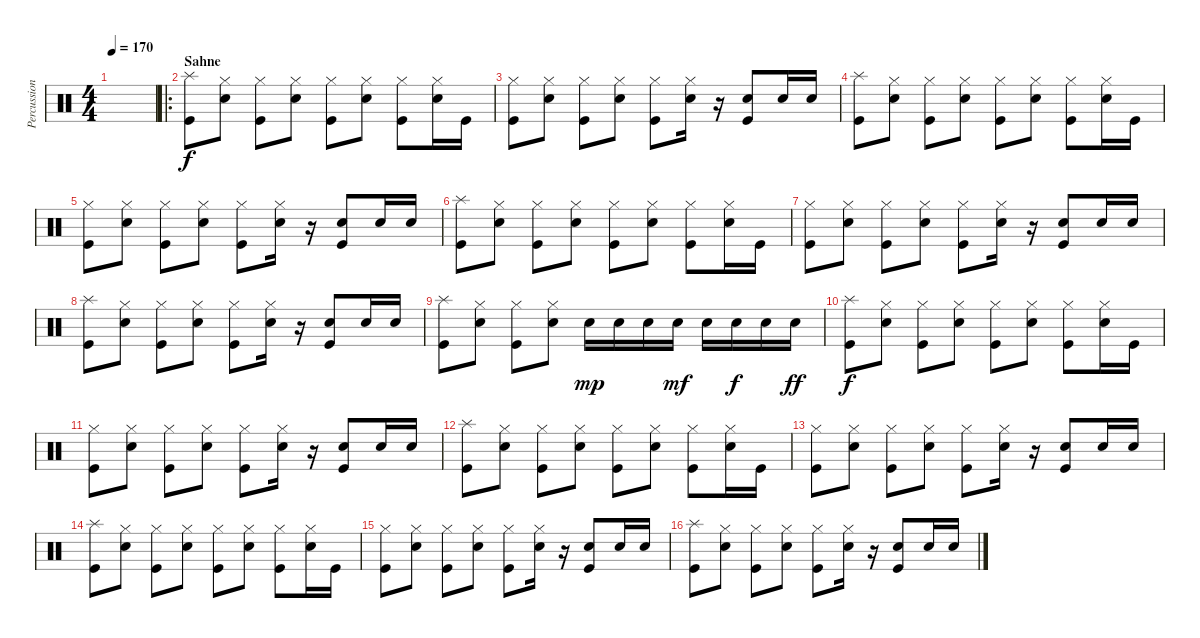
\track ("Percussion" "Percussion") {instrument percussion}
\staff {score}
\articulation defaults
\ts (4 4)
\tempo 170
\clef neutral
\ks c
|
\ro
\section ("" "Sahne")
("Splash (hit)" "Kick (hit)").8 ("Hi-Hat (closed)" "Electric Snare (hit)").8 ("Hi-Hat (closed)" "Kick (hit)").8 ("Hi-Hat (closed)" "Electric Snare (hit)").8 ("Hi-Hat (closed)" "Kick (hit)").8 ("Hi-Hat (closed)" "Electric Snare (hit)").8 ("Hi-Hat (closed)" "Kick (hit)").8 ("Hi-Hat (closed)" "Electric Snare (hit)").16 "Kick (hit)".16 |
("Hi-Hat (closed)" "Kick (hit)").8 ("Hi-Hat (closed)" "Electric Snare (hit)").8 ("Hi-Hat (closed)" "Kick (hit)").8 ("Hi-Hat (closed)" "Electric Snare (hit)").8 ("Hi-Hat (closed)" "Kick (hit)").8 ("Hi-Hat (closed)" "Electric Snare (hit)").16 r.16 ("Electric Snare (hit)" "Kick (hit)").8 "Electric Snare (hit)".16 "Electric Snare (hit)".16 |
("Splash (hit)" "Kick (hit)").8 ("Hi-Hat (closed)" "Electric Snare (hit)").8 ("Hi-Hat (closed)" "Kick (hit)").8 ("Hi-Hat (closed)" "Electric Snare (hit)").8 ("Hi-Hat (closed)" "Kick (hit)").8 ("Hi-Hat (closed)" "Electric Snare (hit)").8 ("Hi-Hat (closed)" "Kick (hit)").8 ("Hi-Hat (closed)" "Electric Snare (hit)").16 "Kick (hit)".16 |
("Hi-Hat (closed)" "Kick (hit)").8 ("Hi-Hat (closed)" "Electric Snare (hit)").8 ("Hi-Hat (closed)" "Kick (hit)").8 ("Hi-Hat (closed)" "Electric Snare (hit)").8 ("Hi-Hat (closed)" "Kick (hit)").8 ("Hi-Hat (closed)" "Electric Snare (hit)").16 r.16 ("Electric Snare (hit)" "Kick (hit)").8 "Electric Snare (hit)".16 "Electric Snare (hit)".16 |
("Splash (hit)" "Kick (hit)").8 ("Hi-Hat (closed)" "Electric Snare (hit)").8 ("Hi-Hat (closed)" "Kick (hit)").8 ("Hi-Hat (closed)" "Electric Snare (hit)").8 ("Hi-Hat (closed)" "Kick (hit)").8 ("Hi-Hat (closed)" "Electric Snare (hit)").8 ("Hi-Hat (closed)" "Kick (hit)").8 ("Hi-Hat (closed)" "Electric Snare (hit)").16 "Kick (hit)".16 |
("Hi-Hat (closed)" "Kick (hit)").8 ("Hi-Hat (closed)" "Electric Snare (hit)").8 ("Hi-Hat (closed)" "Kick (hit)").8 ("Hi-Hat (closed)" "Electric Snare (hit)").8 ("Hi-Hat (closed)" "Kick (hit)").8 ("Hi-Hat (closed)" "Electric Snare (hit)").16 r.16 ("Electric Snare (hit)" "Kick (hit)").8 "Electric Snare (hit)".16 "Electric Snare (hit)".16 |
("Splash (hit)" "Kick (hit)").8 ("Hi-Hat (closed)" "Electric Snare (hit)").8 ("Hi-Hat (closed)" "Kick (hit)").8 ("Hi-Hat (closed)" "Electric Snare (hit)").8 ("Hi-Hat (closed)" "Kick (hit)").8 ("Hi-Hat (closed)" "Electric Snare (hit)").16 r.16 ("Electric Snare (hit)" "Kick (hit)").8 "Electric Snare (hit)".16 "Electric Snare (hit)".16 |
("Splash (hit)" "Kick (hit)").8 ("Hi-Hat (closed)" "Electric Snare (hit)").8 ("Hi-Hat (closed)" "Kick (hit)").8 ("Hi-Hat (closed)" "Electric Snare (hit)").8 "Electric Snare (hit)".16{dy mp} "Electric Snare (hit)".16 "Electric Snare (hit)".16 "Electric Snare (hit)".16{dy mf} "Electric Snare (hit)".16 "Electric Snare (hit)".16{dy f} "Electric Snare (hit)".16 "Electric Snare (hit)".16{dy ff} |
("Splash (hit)" "Kick (hit)").8{dy f} ("Hi-Hat (closed)" "Electric Snare (hit)").8 ("Hi-Hat (closed)" "Kick (hit)").8 ("Hi-Hat (closed)" "Electric Snare (hit)").8 ("Hi-Hat (closed)" "Kick (hit)").8 ("Hi-Hat (closed)" "Electric Snare (hit)").8 ("Hi-Hat (closed)" "Kick (hit)").8 ("Hi-Hat (closed)" "Electric Snare (hit)").16 "Kick (hit)".16 |
("Hi-Hat (closed)" "Kick (hit)").8 ("Hi-Hat (closed)" "Electric Snare (hit)").8 ("Hi-Hat (closed)" "Kick (hit)").8 ("Hi-Hat (closed)" "Electric Snare (hit)").8 ("Hi-Hat (closed)" "Kick (hit)").8 ("Hi-Hat (closed)" "Electric Snare (hit)").16 r.16 ("Electric Snare (hit)" "Kick (hit)").8 "Electric Snare (hit)".16 "Electric Snare (hit)".16 |
("Splash (hit)" "Kick (hit)").8 ("Hi-Hat (closed)" "Electric Snare (hit)").8 ("Hi-Hat (closed)" "Kick (hit)").8 ("Hi-Hat (closed)" "Electric Snare (hit)").8 ("Hi-Hat (closed)" "Kick (hit)").8 ("Hi-Hat (closed)" "Electric Snare (hit)").8 ("Hi-Hat (closed)" "Kick (hit)").8 ("Hi-Hat (closed)" "Electric Snare (hit)").16 "Kick (hit)".16 |
("Hi-Hat (closed)" "Kick (hit)").8 ("Hi-Hat (closed)" "Electric Snare (hit)").8 ("Hi-Hat (closed)" "Kick (hit)").8 ("Hi-Hat (closed)" "Electric Snare (hit)").8 ("Hi-Hat (closed)" "Kick (hit)").8 ("Hi-Hat (closed)" "Electric Snare (hit)").16 r.16 ("Electric Snare (hit)" "Kick (hit)").8 "Electric Snare (hit)".16 "Electric Snare (hit)".16 |
("Splash (hit)" "Kick (hit)").8 ("Hi-Hat (closed)" "Electric Snare (hit)").8 ("Hi-Hat (closed)" "Kick (hit)").8 ("Hi-Hat (closed)" "Electric Snare (hit)").8 ("Hi-Hat (closed)" "Kick (hit)").8 ("Hi-Hat (closed)" "Electric Snare (hit)").8 ("Hi-Hat (closed)" "Kick (hit)").8 ("Hi-Hat (closed)" "Electric Snare (hit)").16 "Kick (hit)".16 |
("Hi-Hat (closed)" "Kick (hit)").8 ("Hi-Hat (closed)" "Electric Snare (hit)").8 ("Hi-Hat (closed)" "Kick (hit)").8 ("Hi-Hat (closed)" "Electric Snare (hit)").8 ("Hi-Hat (closed)" "Kick (hit)").8 ("Hi-Hat (closed)" "Electric Snare (hit)").16 r.16 ("Electric Snare (hit)" "Kick (hit)").8 "Electric Snare (hit)".16 "Electric Snare (hit)".16 |
("Splash (hit)" "Kick (hit)").8 ("Hi-Hat (closed)" "Electric Snare (hit)").8 ("Hi-Hat (closed)" "Kick (hit)").8 ("Hi-Hat (closed)" "Electric Snare (hit)").8 ("Hi-Hat (closed)" "Kick (hit)").8 ("Hi-Hat (closed)" "Electric Snare (hit)").16 r.16 ("Electric Snare (hit)" "Kick (hit)").8 "Electric Snare (hit)".16 "Electric Snare (hit)".16
